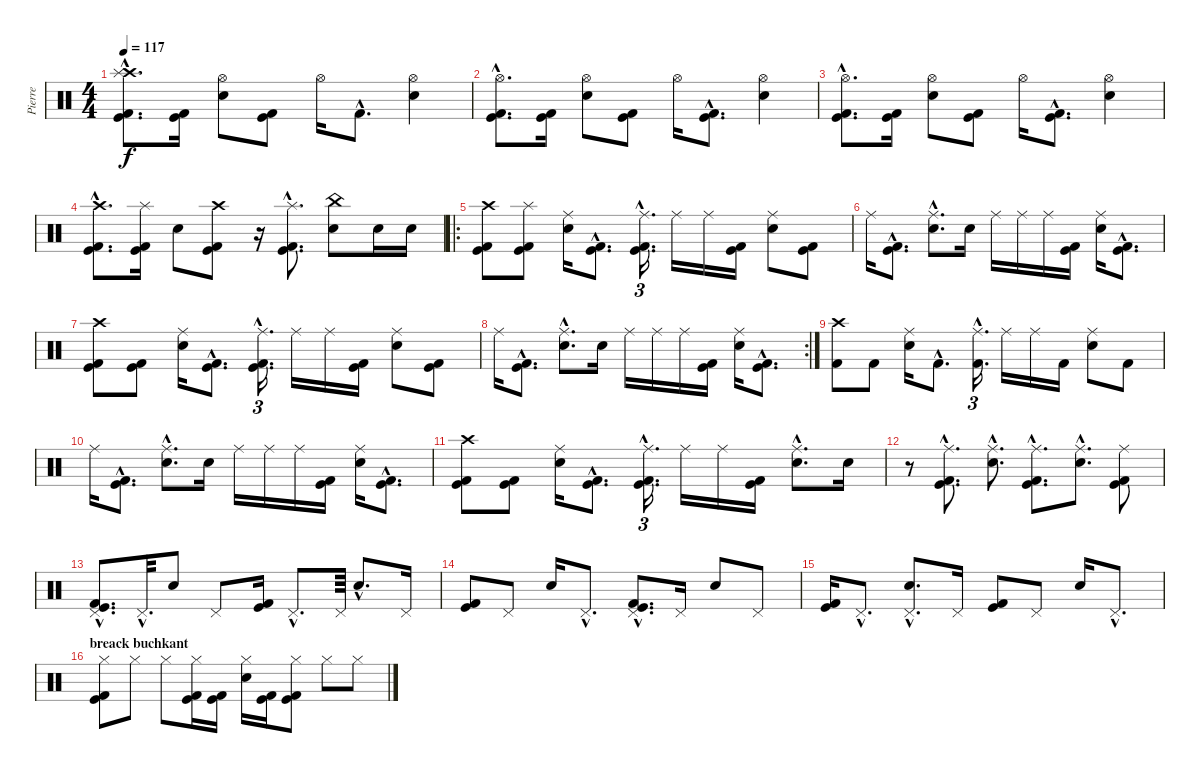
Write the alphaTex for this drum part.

\track ("Pierre" "Pierre") {instrument percussion}
\staff {score}
\articulation defaults
\ts (4 4)
\tempo 117
\clef neutral
\ks c
("Crash high (hit)"{hac} "Splash (hit)"{hac} "Kick (hit)"{hac} "Kick (hit) 2").8{d dy f} ("Kick (hit)" "Kick (hit) 2").16 ("Hi-Hat (open)" "Electric Snare (hit)").8 ("Kick (hit)" "Kick (hit) 2").8 "Hi-Hat (open)".16 "Kick (hit) 2"{hac}.8{d} ("Hi-Hat (open)" "Electric Snare (hit)").4 |
("Hi-Hat (open)"{hac} "Kick (hit)"{hac} "Kick (hit) 2").8{d} ("Kick (hit)" "Kick (hit) 2").16 ("Hi-Hat (open)" "Electric Snare (hit)").8 ("Kick (hit)" "Kick (hit) 2").8 "Hi-Hat (open)".16 ("Kick (hit)"{hac} "Kick (hit) 2"{hac}).8{d} ("Hi-Hat (open)" "Electric Snare (hit)").4 |
("Hi-Hat (open)"{hac} "Kick (hit)"{hac} "Kick (hit) 2").8{d} ("Kick (hit)" "Kick (hit) 2").16 ("Hi-Hat (open)" "Electric Snare (hit)").8 ("Kick (hit)" "Kick (hit) 2").8 "Hi-Hat (open)".16 ("Kick (hit)"{hac} "Kick (hit) 2"{hac}).8{d} ("Hi-Hat (open)" "Electric Snare (hit)").4 |
("Crash high (hit)"{hac} "Kick (hit)"{hac} "Kick (hit) 2").8{d} ("Splash (hit)" "Kick (hit)" "Kick (hit) 2").16 "Electric Snare (hit)".8 ("Crash high (hit)" "Kick (hit)" "Kick (hit) 2").8 r.16 ("Splash (hit)"{hac} "Kick (hit)"{hac} "Kick (hit) 2"{hac}).8{d} ("China (hit)" "Electric Snare (hit)").8 "Electric Snare (hit)".16 "Electric Snare (hit)".16 |
\ro
("Crash high (hit)" "Kick (hit)" "Kick (hit) 2").8 ("Splash (hit)" "Kick (hit)" "Kick (hit) 2").8 ("Ride (middle)" "Electric Snare (hit)").16 ("Kick (hit)"{hac} "Kick (hit) 2"{hac}).8{d} ("Ride (middle)"{hac} "Kick (hit)"{hac} "Kick (hit) 2"{hac}).16{d tu (3 2)} "Ride (middle)".16 "Ride (middle)".16 ("Kick (hit)" "Kick (hit) 2").16 ("Ride (middle)" "Electric Snare (hit)").8 ("Kick (hit)" "Kick (hit) 2").8 |
"Ride (middle)".16 ("Kick (hit)"{hac} "Kick (hit) 2"{hac}).8{d} ("Ride (middle)"{hac} "Electric Snare (hit)"{hac}).8{d} "Electric Snare (hit)".16 "Ride (middle)".16 "Ride (middle)".16 "Ride (middle)".16 ("Kick (hit)" "Kick (hit) 2").16 ("Ride (middle)" "Electric Snare (hit)").16 ("Kick (hit)"{hac} "Kick (hit) 2"{hac}).8{d} |
("Crash high (hit)" "Kick (hit)" "Kick (hit) 2").8 ("Kick (hit)" "Kick (hit) 2").8 ("Ride (middle)" "Electric Snare (hit)").16 ("Kick (hit)"{hac} "Kick (hit) 2"{hac}).8{d} ("Ride (middle)"{hac} "Kick (hit)"{hac} "Kick (hit) 2"{hac}).16{d tu (3 2)} "Ride (middle)".16 "Ride (middle)".16 ("Kick (hit)" "Kick (hit) 2").16 ("Ride (middle)" "Electric Snare (hit)").8 ("Kick (hit)" "Kick (hit) 2").8 |
\rc 2 "Ride (middle)".16
("Kick (hit)"{hac} "Kick (hit) 2"{hac}).8{d} ("Ride (middle)"{hac} "Electric Snare (hit)"{hac}).8{d} "Electric Snare (hit)".16 "Ride (middle)".16 "Ride (middle)".16 "Ride (middle)".16 ("Kick (hit)" "Kick (hit) 2").16 ("Ride (middle)" "Electric Snare (hit)").16 ("Kick (hit)"{hac} "Kick (hit) 2"{hac}).8{d} |
("Crash high (hit)" "Kick (hit) 2").8 "Kick (hit) 2".8 ("Ride (middle)" "Electric Snare (hit)").16 "Kick (hit) 2"{hac}.8{d} ("Ride (middle)"{hac} "Kick (hit) 2"{hac}).16{d tu (3 2)} "Ride (middle)".16 "Ride (middle)".16 "Kick (hit) 2".16 ("Ride (middle)" "Electric Snare (hit)").8 "Kick (hit) 2".8 |
"Ride (middle)".16 ("Kick (hit)"{hac} "Kick (hit) 2"{hac}).8{d} ("Ride (middle)"{hac} "Electric Snare (hit)"{hac}).8{d} "Electric Snare (hit)".16 "Ride (middle)".16 "Ride (middle)".16 "Ride (middle)".16 ("Kick (hit)" "Kick (hit) 2").16 ("Ride (middle)" "Electric Snare (hit)").16 ("Kick (hit)"{hac} "Kick (hit) 2"{hac}).8{d} |
("Crash high (hit)" "Kick (hit)" "Kick (hit) 2").8 ("Kick (hit)" "Kick (hit) 2").8 ("Ride (middle)" "Electric Snare (hit)").16 ("Kick (hit)"{hac} "Kick (hit) 2"{hac}).8{d} ("Ride (middle)"{hac} "Kick (hit)"{hac} "Kick (hit) 2"{hac}).16{d tu (3 2)} "Ride (middle)".16 "Ride (middle)".16 ("Kick (hit)" "Kick (hit) 2").16 ("Ride (middle)"{hac} "Electric Snare (hit)"{hac}).8{d} "Electric Snare (hit)".16 |
r.8 ("Ride (middle)"{hac} "Kick (hit)"{hac} "Kick (hit) 2"{hac}).8{d} ("Ride (middle)"{hac} "Electric Snare (hit)"{hac}).8{d} ("Ride (middle)"{hac} "Kick (hit)"{hac} "Kick (hit) 2"{hac}).8{d} ("Ride (middle)"{hac} "Electric Snare (hit)"{hac}).8{d} ("Ride (middle)" "Kick (hit)" "Kick (hit) 2").8 |
("Pedal Hi-Hat (hit)"{hac} "Kick (hit)"{hac} "Kick (hit) 2"{hac}).8{d} "Pedal Hi-Hat (hit)"{hac}.32{d} "Electric Snare (hit)".8 "Pedal Hi-Hat (hit)".8 ("Kick (hit)" "Kick (hit) 2").16 "Pedal Hi-Hat (hit)"{hac}.8{d} "Pedal Hi-Hat (hit)".64 "Electric Snare (hit)"{hac}.8{d} "Pedal Hi-Hat (hit)".16 |
("Kick (hit)" "Kick (hit) 2").8 "Pedal Hi-Hat (hit)".8 "Electric Snare (hit)".16 "Pedal Hi-Hat (hit)"{hac}.8{d} ("Pedal Hi-Hat (hit)"{hac} "Kick (hit)"{hac} "Kick (hit) 2"{hac}).8{d} "Pedal Hi-Hat (hit)".16 "Electric Snare (hit)".8 "Pedal Hi-Hat (hit)".8 |
("Kick (hit)" "Kick (hit) 2").16 "Pedal Hi-Hat (hit)"{hac}.8{d} ("Pedal Hi-Hat (hit)"{hac} "Electric Snare (hit)"{hac}).8{d} "Pedal Hi-Hat (hit)".16 ("Kick (hit)" "Kick (hit) 2").8 "Pedal Hi-Hat (hit)".8 "Electric Snare (hit)".16 "Pedal Hi-Hat (hit)"{hac}.8{d} |
\section ("" "breack buchkant")
("Hi-Hat (closed)" "Kick (hit)" "Kick (hit) 2").8 "Hi-Hat (closed)".8 "Hi-Hat (closed)".8 ("Hi-Hat (closed)" "Kick (hit)" "Kick (hit) 2").16 ("Kick (hit)" "Kick (hit) 2").16 ("Hi-Hat (closed)" "Electric Snare (hit)").16 ("Kick (hit)" "Kick (hit) 2").16 ("Hi-Hat (closed)" "Kick (hit)" "Kick (hit) 2").8 "Hi-Hat (closed)".8 "Hi-Hat (closed)".8
